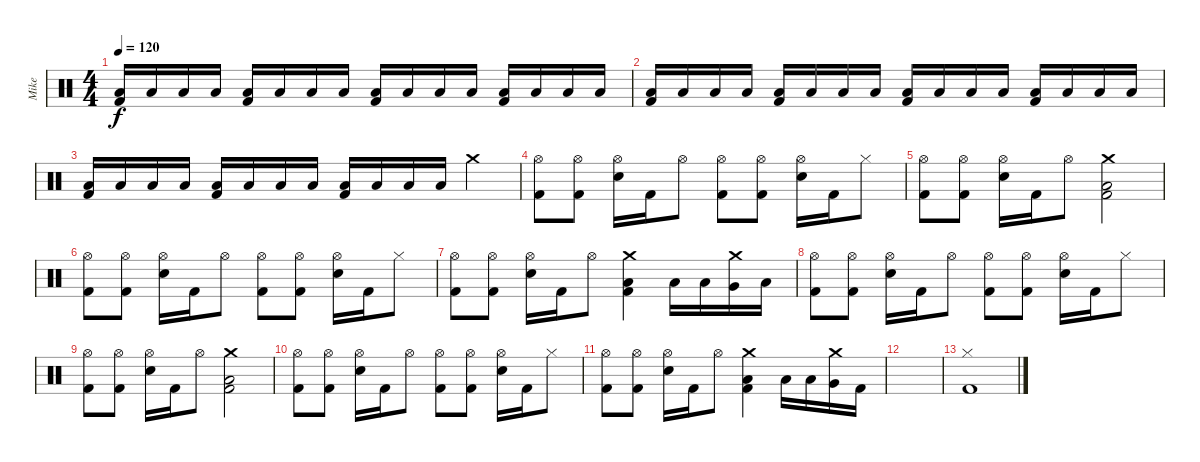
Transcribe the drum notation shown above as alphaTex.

\track ("Mike" "Mike") {instrument percussion}
\staff {score}
\articulation defaults
\ts (4 4)
\tempo 120
\clef neutral
\ks c
("Low Floor Tom (hit)" "Kick (hit) 2").16{dy f} "Low Floor Tom (hit)".16 "Low Floor Tom (hit)".16 "Low Floor Tom (hit)".16 ("Low Floor Tom (hit)" "Kick (hit) 2").16 "Low Floor Tom (hit)".16 "Low Floor Tom (hit)".16 "Low Floor Tom (hit)".16 ("Low Floor Tom (hit)" "Kick (hit) 2").16 "Low Floor Tom (hit)".16 "Low Floor Tom (hit)".16 "Low Floor Tom (hit)".16 ("Low Floor Tom (hit)" "Kick (hit) 2").16 "Low Floor Tom (hit)".16 "Low Floor Tom (hit)".16 "Low Floor Tom (hit)".16 |
("Low Floor Tom (hit)" "Kick (hit) 2").16 "Low Floor Tom (hit)".16 "Low Floor Tom (hit)".16 "Low Floor Tom (hit)".16 ("Low Floor Tom (hit)" "Kick (hit) 2").16 "Low Floor Tom (hit)".16 "Low Floor Tom (hit)".16 "Low Floor Tom (hit)".16 ("Low Floor Tom (hit)" "Kick (hit) 2").16 "Low Floor Tom (hit)".16 "Low Floor Tom (hit)".16 "Low Floor Tom (hit)".16 ("Low Floor Tom (hit)" "Kick (hit) 2").16 "Low Floor Tom (hit)".16 "Low Floor Tom (hit)".16 "Low Floor Tom (hit)".16 |
("Low Floor Tom (hit)" "Kick (hit) 2").16 "Low Floor Tom (hit)".16 "Low Floor Tom (hit)".16 "Low Floor Tom (hit)".16 ("Low Floor Tom (hit)" "Kick (hit) 2").16 "Low Floor Tom (hit)".16 "Low Floor Tom (hit)".16 "Low Floor Tom (hit)".16 ("Low Floor Tom (hit)" "Kick (hit) 2").16 "Low Floor Tom (hit)".16 "Low Floor Tom (hit)".16 "Low Floor Tom (hit)".16 "Crash medium (hit)".4 |
("Hi-Hat (open)" "Kick (hit) 2").8 ("Hi-Hat (open)" "Kick (hit) 2").8 ("Hi-Hat (open)" "Electric Snare (hit)").16 "Kick (hit) 2".16 "Hi-Hat (open)".8 ("Hi-Hat (open)" "Kick (hit) 2").8 ("Hi-Hat (open)" "Kick (hit) 2").8 ("Hi-Hat (open)" "Electric Snare (hit)").16 "Kick (hit) 2".16 "Hi-Hat (closed)".8 |
("Hi-Hat (open)" "Kick (hit) 2").8 ("Hi-Hat (open)" "Kick (hit) 2").8 ("Hi-Hat (open)" "Electric Snare (hit)").16 "Kick (hit) 2".16 "Hi-Hat (open)".8 ("Crash medium (hit)" "Low Floor Tom (hit)" "Kick (hit) 2").2 |
("Hi-Hat (open)" "Kick (hit) 2").8 ("Hi-Hat (open)" "Kick (hit) 2").8 ("Hi-Hat (open)" "Electric Snare (hit)").16 "Kick (hit) 2".16 "Hi-Hat (open)".8 ("Hi-Hat (open)" "Kick (hit) 2").8 ("Hi-Hat (open)" "Kick (hit) 2").8 ("Hi-Hat (open)" "Electric Snare (hit)").16 "Kick (hit) 2".16 "Hi-Hat (closed)".8 |
("Hi-Hat (open)" "Kick (hit) 2").8 ("Hi-Hat (open)" "Kick (hit) 2").8 ("Hi-Hat (open)" "Electric Snare (hit)").16 "Kick (hit) 2".16 "Hi-Hat (open)".8 ("Crash medium (hit)" "Low Floor Tom (hit)" "Kick (hit) 2").4 "Low Tom (hit)".16 "Low Floor Tom (hit)".16 ("Crash medium (hit)" "Very Low Tom (hit)").16 "Low Floor Tom (hit)".16 |
("Hi-Hat (open)" "Kick (hit) 2").8 ("Hi-Hat (open)" "Kick (hit) 2").8 ("Hi-Hat (open)" "Electric Snare (hit)").16 "Kick (hit) 2".16 "Hi-Hat (open)".8 ("Hi-Hat (open)" "Kick (hit) 2").8 ("Hi-Hat (open)" "Kick (hit) 2").8 ("Hi-Hat (open)" "Electric Snare (hit)").16 "Kick (hit) 2".16 "Hi-Hat (closed)".8 |
("Hi-Hat (open)" "Kick (hit) 2").8 ("Hi-Hat (open)" "Kick (hit) 2").8 ("Hi-Hat (open)" "Electric Snare (hit)").16 "Kick (hit) 2".16 "Hi-Hat (open)".8 ("Crash medium (hit)" "Low Floor Tom (hit)" "Kick (hit) 2").2 |
("Hi-Hat (open)" "Kick (hit) 2").8 ("Hi-Hat (open)" "Kick (hit) 2").8 ("Hi-Hat (open)" "Electric Snare (hit)").16 "Kick (hit) 2".16 "Hi-Hat (open)".8 ("Hi-Hat (open)" "Kick (hit) 2").8 ("Hi-Hat (open)" "Kick (hit) 2").8 ("Hi-Hat (open)" "Electric Snare (hit)").16 "Kick (hit) 2".16 "Hi-Hat (closed)".8 |
("Hi-Hat (open)" "Kick (hit) 2").8 ("Hi-Hat (open)" "Kick (hit) 2").8 ("Hi-Hat (open)" "Electric Snare (hit)").16 "Kick (hit) 2".16 "Hi-Hat (open)".8 ("Crash medium (hit)" "Low Floor Tom (hit)" "Kick (hit) 2").4 "Low Tom (hit)".16 "Low Floor Tom (hit)".16 ("Crash medium (hit)" "Very Low Tom (hit)").16 "Kick (hit) 2".16 |
|
("Hi-Hat (closed)" "Kick (hit) 2").1
